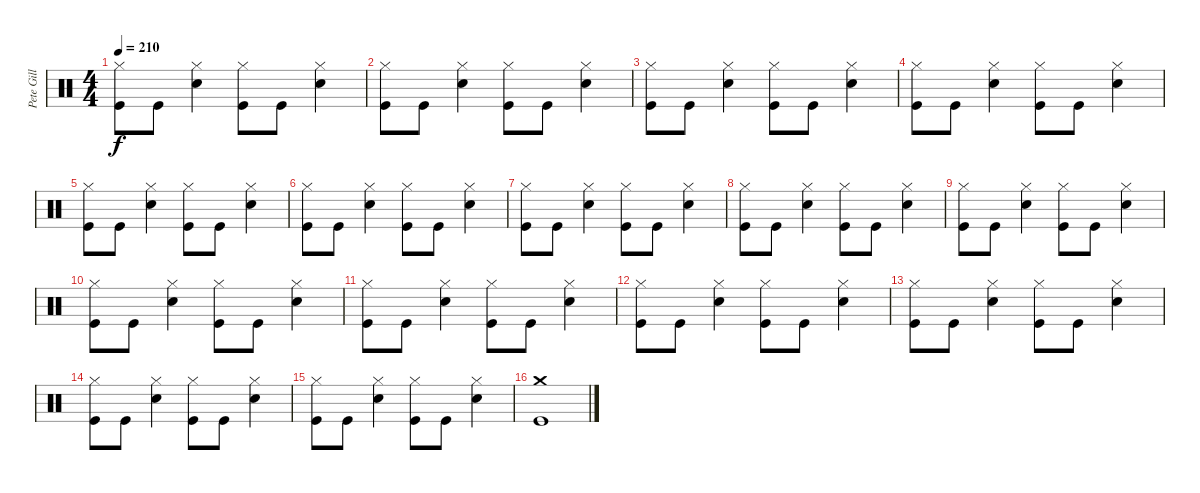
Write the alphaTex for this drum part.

\track ("Pete Gill" "Pete Gill") {instrument percussion}
\staff {score}
\articulation defaults
\ts (4 4)
\tempo 210
\clef neutral
\ks c
("Hi-Hat (closed)" "Kick (hit)").8{dy f} "Kick (hit)".8 ("Hi-Hat (closed)" "Snare (hit) 2").4 ("Hi-Hat (closed)" "Kick (hit)").8 "Kick (hit)".8 ("Hi-Hat (closed)" "Snare (hit) 2").4 |
("Hi-Hat (closed)" "Kick (hit)").8 "Kick (hit)".8 ("Hi-Hat (closed)" "Snare (hit) 2").4 ("Hi-Hat (closed)" "Kick (hit)").8 "Kick (hit)".8 ("Hi-Hat (closed)" "Snare (hit) 2").4 |
("Hi-Hat (closed)" "Kick (hit)").8 "Kick (hit)".8 ("Hi-Hat (closed)" "Snare (hit) 2").4 ("Hi-Hat (closed)" "Kick (hit)").8 "Kick (hit)".8 ("Hi-Hat (closed)" "Snare (hit) 2").4 |
("Hi-Hat (closed)" "Kick (hit)").8 "Kick (hit)".8 ("Hi-Hat (closed)" "Snare (hit) 2").4 ("Hi-Hat (closed)" "Kick (hit)").8 "Kick (hit)".8 ("Hi-Hat (closed)" "Snare (hit) 2").4 |
("Hi-Hat (closed)" "Kick (hit)").8 "Kick (hit)".8 ("Hi-Hat (closed)" "Snare (hit) 2").4 ("Hi-Hat (closed)" "Kick (hit)").8 "Kick (hit)".8 ("Hi-Hat (closed)" "Snare (hit) 2").4 |
("Hi-Hat (closed)" "Kick (hit)").8 "Kick (hit)".8 ("Hi-Hat (closed)" "Snare (hit) 2").4 ("Hi-Hat (closed)" "Kick (hit)").8 "Kick (hit)".8 ("Hi-Hat (closed)" "Snare (hit) 2").4 |
("Hi-Hat (closed)" "Kick (hit)").8 "Kick (hit)".8 ("Hi-Hat (closed)" "Snare (hit) 2").4 ("Hi-Hat (closed)" "Kick (hit)").8 "Kick (hit)".8 ("Hi-Hat (closed)" "Snare (hit) 2").4 |
("Hi-Hat (closed)" "Kick (hit)").8 "Kick (hit)".8 ("Hi-Hat (closed)" "Snare (hit) 2").4 ("Hi-Hat (closed)" "Kick (hit)").8 "Kick (hit)".8 ("Hi-Hat (closed)" "Snare (hit) 2").4 |
("Hi-Hat (closed)" "Kick (hit)").8 "Kick (hit)".8 ("Hi-Hat (closed)" "Snare (hit) 2").4 ("Hi-Hat (closed)" "Kick (hit)").8 "Kick (hit)".8 ("Hi-Hat (closed)" "Snare (hit) 2").4 |
("Hi-Hat (closed)" "Kick (hit)").8 "Kick (hit)".8 ("Hi-Hat (closed)" "Snare (hit) 2").4 ("Hi-Hat (closed)" "Kick (hit)").8 "Kick (hit)".8 ("Hi-Hat (closed)" "Snare (hit) 2").4 |
("Hi-Hat (closed)" "Kick (hit)").8 "Kick (hit)".8 ("Hi-Hat (closed)" "Snare (hit) 2").4 ("Hi-Hat (closed)" "Kick (hit)").8 "Kick (hit)".8 ("Hi-Hat (closed)" "Snare (hit) 2").4 |
("Hi-Hat (closed)" "Kick (hit)").8 "Kick (hit)".8 ("Hi-Hat (closed)" "Snare (hit) 2").4 ("Hi-Hat (closed)" "Kick (hit)").8 "Kick (hit)".8 ("Hi-Hat (closed)" "Snare (hit) 2").4 |
("Hi-Hat (closed)" "Kick (hit)").8 "Kick (hit)".8 ("Hi-Hat (closed)" "Snare (hit) 2").4 ("Hi-Hat (closed)" "Kick (hit)").8 "Kick (hit)".8 ("Hi-Hat (closed)" "Snare (hit) 2").4 |
("Hi-Hat (closed)" "Kick (hit)").8 "Kick (hit)".8 ("Hi-Hat (closed)" "Snare (hit) 2").4 ("Hi-Hat (closed)" "Kick (hit)").8 "Kick (hit)".8 ("Hi-Hat (closed)" "Snare (hit) 2").4 |
("Hi-Hat (closed)" "Kick (hit)").8 "Kick (hit)".8 ("Hi-Hat (closed)" "Snare (hit) 2").4 ("Hi-Hat (closed)" "Kick (hit)").8 "Kick (hit)".8 ("Hi-Hat (closed)" "Snare (hit) 2").4 |
("Crash medium (hit)" "Kick (hit)").1
